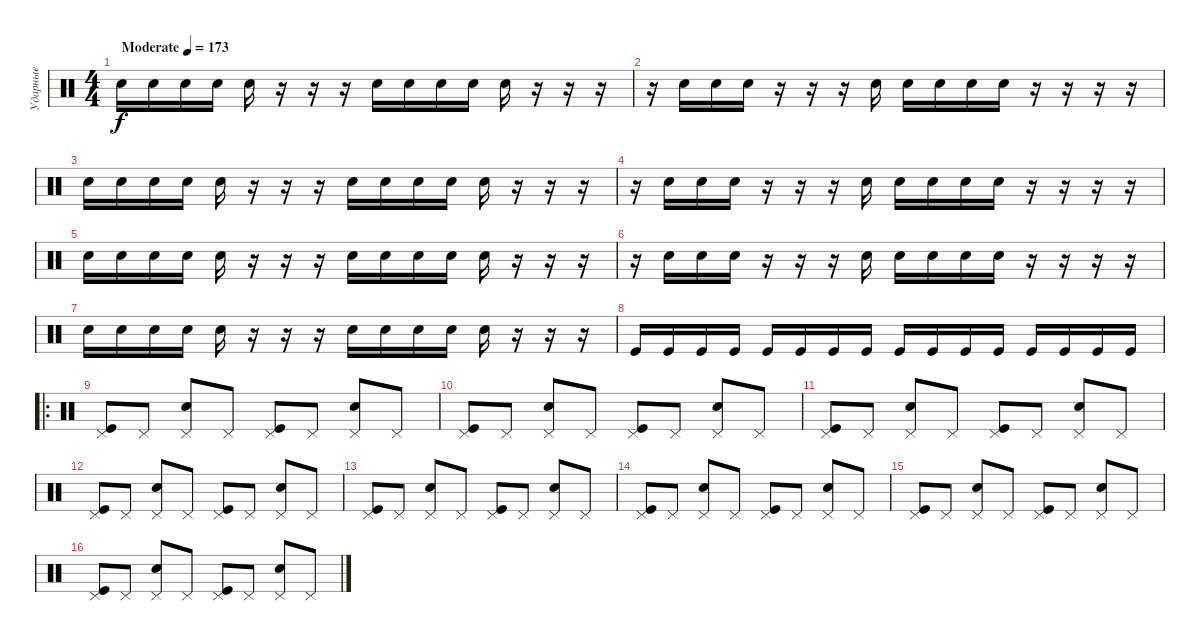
\track ("Ударные" "Ударные") {instrument percussion}
\staff {score}
\articulation defaults
\ts (4 4)
\tempo (173 "Moderate")
\clef neutral
\ks c "Electric Snare (hit)".16{dy f} "Electric Snare (hit)".16 "Electric Snare (hit)".16 "Electric Snare (hit)".16 "Electric Snare (hit)".16
r.16 r.16 r.16 "Electric Snare (hit)".16 "Electric Snare (hit)".16 "Electric Snare (hit)".16 "Electric Snare (hit)".16 "Electric Snare (hit)".16 r.16 r.16 r.16 |
r.16 "Electric Snare (hit)".16 "Electric Snare (hit)".16 "Electric Snare (hit)".16 r.16 r.16 r.16 "Electric Snare (hit)".16 "Electric Snare (hit)".16 "Electric Snare (hit)".16 "Electric Snare (hit)".16 "Electric Snare (hit)".16 r.16 r.16 r.16 r.16 |
"Electric Snare (hit)".16 "Electric Snare (hit)".16 "Electric Snare (hit)".16 "Electric Snare (hit)".16 "Electric Snare (hit)".16 r.16 r.16 r.16 "Electric Snare (hit)".16 "Electric Snare (hit)".16 "Electric Snare (hit)".16 "Electric Snare (hit)".16 "Electric Snare (hit)".16 r.16 r.16 r.16 |
r.16 "Electric Snare (hit)".16 "Electric Snare (hit)".16 "Electric Snare (hit)".16 r.16 r.16 r.16 "Electric Snare (hit)".16 "Electric Snare (hit)".16 "Electric Snare (hit)".16 "Electric Snare (hit)".16 "Electric Snare (hit)".16 r.16 r.16 r.16 r.16 |
"Electric Snare (hit)".16 "Electric Snare (hit)".16 "Electric Snare (hit)".16 "Electric Snare (hit)".16 "Electric Snare (hit)".16 r.16 r.16 r.16 "Electric Snare (hit)".16 "Electric Snare (hit)".16 "Electric Snare (hit)".16 "Electric Snare (hit)".16 "Electric Snare (hit)".16 r.16 r.16 r.16 |
r.16 "Electric Snare (hit)".16 "Electric Snare (hit)".16 "Electric Snare (hit)".16 r.16 r.16 r.16 "Electric Snare (hit)".16 "Electric Snare (hit)".16 "Electric Snare (hit)".16 "Electric Snare (hit)".16 "Electric Snare (hit)".16 r.16 r.16 r.16 r.16 |
"Electric Snare (hit)".16 "Electric Snare (hit)".16 "Electric Snare (hit)".16 "Electric Snare (hit)".16 "Electric Snare (hit)".16 r.16 r.16 r.16 "Electric Snare (hit)".16 "Electric Snare (hit)".16 "Electric Snare (hit)".16 "Electric Snare (hit)".16 "Electric Snare (hit)".16 r.16 r.16 r.16 |
"Kick (hit)".16 "Kick (hit)".16 "Kick (hit)".16 "Kick (hit)".16 "Kick (hit)".16 "Kick (hit)".16 "Kick (hit)".16 "Kick (hit)".16 "Kick (hit)".16 "Kick (hit)".16 "Kick (hit)".16 "Kick (hit)".16 "Kick (hit)".16 "Kick (hit)".16 "Kick (hit)".16 "Kick (hit)".16 |
\ro
("Pedal Hi-Hat (hit)" "Kick (hit)").8 "Pedal Hi-Hat (hit)".8 ("Pedal Hi-Hat (hit)" "Snare (hit) 2").8 "Pedal Hi-Hat (hit)".8 ("Pedal Hi-Hat (hit)" "Kick (hit)").8 "Pedal Hi-Hat (hit)".8 ("Pedal Hi-Hat (hit)" "Snare (hit) 2").8 "Pedal Hi-Hat (hit)".8 |
("Pedal Hi-Hat (hit)" "Kick (hit)").8 "Pedal Hi-Hat (hit)".8 ("Pedal Hi-Hat (hit)" "Snare (hit) 2").8 "Pedal Hi-Hat (hit)".8 ("Pedal Hi-Hat (hit)" "Kick (hit)").8 "Pedal Hi-Hat (hit)".8 ("Pedal Hi-Hat (hit)" "Snare (hit) 2").8 "Pedal Hi-Hat (hit)".8 |
("Pedal Hi-Hat (hit)" "Kick (hit)").8 "Pedal Hi-Hat (hit)".8 ("Pedal Hi-Hat (hit)" "Snare (hit) 2").8 "Pedal Hi-Hat (hit)".8 ("Pedal Hi-Hat (hit)" "Kick (hit)").8 "Pedal Hi-Hat (hit)".8 ("Pedal Hi-Hat (hit)" "Snare (hit) 2").8 "Pedal Hi-Hat (hit)".8 |
("Pedal Hi-Hat (hit)" "Kick (hit)").8 "Pedal Hi-Hat (hit)".8 ("Pedal Hi-Hat (hit)" "Snare (hit) 2").8 "Pedal Hi-Hat (hit)".8 ("Pedal Hi-Hat (hit)" "Kick (hit)").8 "Pedal Hi-Hat (hit)".8 ("Pedal Hi-Hat (hit)" "Snare (hit) 2").8 "Pedal Hi-Hat (hit)".8 |
("Pedal Hi-Hat (hit)" "Kick (hit)").8 "Pedal Hi-Hat (hit)".8 ("Pedal Hi-Hat (hit)" "Snare (hit) 2").8 "Pedal Hi-Hat (hit)".8 ("Pedal Hi-Hat (hit)" "Kick (hit)").8 "Pedal Hi-Hat (hit)".8 ("Pedal Hi-Hat (hit)" "Snare (hit) 2").8 "Pedal Hi-Hat (hit)".8 |
("Pedal Hi-Hat (hit)" "Kick (hit)").8 "Pedal Hi-Hat (hit)".8 ("Pedal Hi-Hat (hit)" "Snare (hit) 2").8 "Pedal Hi-Hat (hit)".8 ("Pedal Hi-Hat (hit)" "Kick (hit)").8 "Pedal Hi-Hat (hit)".8 ("Pedal Hi-Hat (hit)" "Snare (hit) 2").8 "Pedal Hi-Hat (hit)".8 |
("Pedal Hi-Hat (hit)" "Kick (hit)").8 "Pedal Hi-Hat (hit)".8 ("Pedal Hi-Hat (hit)" "Snare (hit) 2").8 "Pedal Hi-Hat (hit)".8 ("Pedal Hi-Hat (hit)" "Kick (hit)").8 "Pedal Hi-Hat (hit)".8 ("Pedal Hi-Hat (hit)" "Snare (hit) 2").8 "Pedal Hi-Hat (hit)".8 |
("Pedal Hi-Hat (hit)" "Kick (hit)").8 "Pedal Hi-Hat (hit)".8 ("Pedal Hi-Hat (hit)" "Snare (hit) 2").8 "Pedal Hi-Hat (hit)".8 ("Pedal Hi-Hat (hit)" "Kick (hit)").8 "Pedal Hi-Hat (hit)".8 ("Pedal Hi-Hat (hit)" "Snare (hit) 2").8 "Pedal Hi-Hat (hit)".8
